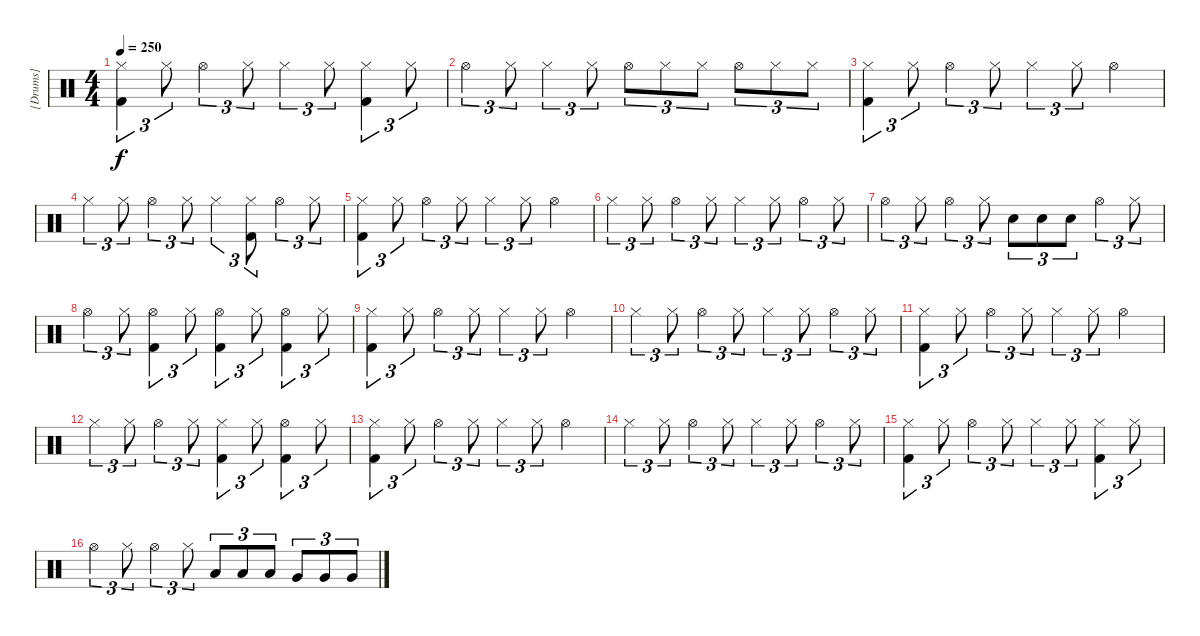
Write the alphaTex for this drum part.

\track ("[Drums]" "[Drums]") {instrument percussion}
\staff {score}
\articulation defaults
\ts (4 4)
\tempo 250
\clef neutral
\ks c
("Hi-Hat (closed)" "Kick (hit) 2").4{tu (3 2) dy f} "Hi-Hat (closed)".8{tu (3 2)} "Hi-Hat (open)".4{tu (3 2)} "Hi-Hat (closed)".8{tu (3 2)} "Hi-Hat (closed)".4{tu (3 2)} "Hi-Hat (closed)".8{tu (3 2)} ("Hi-Hat (closed)" "Kick (hit) 2").4{tu (3 2)} "Hi-Hat (closed)".8{tu (3 2)} |
"Hi-Hat (open)".4{tu (3 2)} "Hi-Hat (closed)".8{tu (3 2)} "Hi-Hat (closed)".4{tu (3 2)} "Hi-Hat (closed)".8{tu (3 2)} "Hi-Hat (open)".8{tu (3 2)} "Hi-Hat (closed)".8{tu (3 2)} "Hi-Hat (closed)".8{tu (3 2)} "Hi-Hat (open)".8{tu (3 2)} "Hi-Hat (closed)".8{tu (3 2)} "Hi-Hat (closed)".8{tu (3 2)} |
("Hi-Hat (closed)" "Kick (hit) 2").4{tu (3 2)} "Hi-Hat (closed)".8{tu (3 2)} "Hi-Hat (open)".4{tu (3 2)} "Hi-Hat (closed)".8{tu (3 2)} "Hi-Hat (closed)".4{tu (3 2)} "Hi-Hat (closed)".8{tu (3 2)} "Hi-Hat (open)".4 |
"Hi-Hat (closed)".4{tu (3 2)} "Hi-Hat (closed)".8{tu (3 2)} "Hi-Hat (open)".4{tu (3 2)} "Hi-Hat (closed)".8{tu (3 2)} "Hi-Hat (closed)".4{tu (3 2)} ("Hi-Hat (closed)" "Kick (hit) 2").8{tu (3 2)} "Hi-Hat (open)".4{tu (3 2)} "Hi-Hat (closed)".8{tu (3 2)} |
("Hi-Hat (closed)" "Kick (hit) 2").4{tu (3 2)} "Hi-Hat (closed)".8{tu (3 2)} "Hi-Hat (open)".4{tu (3 2)} "Hi-Hat (closed)".8{tu (3 2)} "Hi-Hat (closed)".4{tu (3 2)} "Hi-Hat (closed)".8{tu (3 2)} "Hi-Hat (open)".4 |
"Hi-Hat (closed)".4{tu (3 2)} "Hi-Hat (closed)".8{tu (3 2)} "Hi-Hat (open)".4{tu (3 2)} "Hi-Hat (closed)".8{tu (3 2)} "Hi-Hat (closed)".4{tu (3 2)} "Hi-Hat (closed)".8{tu (3 2)} "Hi-Hat (open)".4{tu (3 2)} "Hi-Hat (closed)".8{tu (3 2)} |
"Hi-Hat (open)".4{tu (3 2)} "Hi-Hat (closed)".8{tu (3 2)} "Hi-Hat (open)".4{tu (3 2)} "Hi-Hat (closed)".8{tu (3 2)} "Electric Snare (hit)".8{tu (3 2)} "Electric Snare (hit)".8{tu (3 2)} "Electric Snare (hit)".8{tu (3 2)} "Hi-Hat (open)".4{tu (3 2)} "Hi-Hat (closed)".8{tu (3 2)} |
"Hi-Hat (open)".4{tu (3 2)} "Hi-Hat (closed)".8{tu (3 2)} ("Hi-Hat (open)" "Kick (hit) 2").4{tu (3 2)} "Hi-Hat (closed)".8{tu (3 2)} ("Hi-Hat (open)" "Kick (hit) 2").4{tu (3 2)} "Hi-Hat (closed)".8{tu (3 2)} ("Hi-Hat (open)" "Kick (hit) 2").4{tu (3 2)} "Hi-Hat (closed)".8{tu (3 2)} |
("Hi-Hat (closed)" "Kick (hit) 2").4{tu (3 2)} "Hi-Hat (closed)".8{tu (3 2)} "Hi-Hat (open)".4{tu (3 2)} "Hi-Hat (closed)".8{tu (3 2)} "Hi-Hat (closed)".4{tu (3 2)} "Hi-Hat (closed)".8{tu (3 2)} "Hi-Hat (open)".4 |
"Hi-Hat (closed)".4{tu (3 2)} "Hi-Hat (closed)".8{tu (3 2)} "Hi-Hat (open)".4{tu (3 2)} "Hi-Hat (closed)".8{tu (3 2)} "Hi-Hat (closed)".4{tu (3 2)} "Hi-Hat (closed)".8{tu (3 2)} "Hi-Hat (open)".4{tu (3 2)} "Hi-Hat (closed)".8{tu (3 2)} |
("Hi-Hat (closed)" "Kick (hit) 2").4{tu (3 2)} "Hi-Hat (closed)".8{tu (3 2)} "Hi-Hat (open)".4{tu (3 2)} "Hi-Hat (closed)".8{tu (3 2)} "Hi-Hat (closed)".4{tu (3 2)} "Hi-Hat (closed)".8{tu (3 2)} "Hi-Hat (open)".4 |
"Hi-Hat (closed)".4{tu (3 2)} "Hi-Hat (closed)".8{tu (3 2)} "Hi-Hat (open)".4{tu (3 2)} "Hi-Hat (closed)".8{tu (3 2)} ("Hi-Hat (closed)" "Kick (hit) 2").4{tu (3 2)} "Hi-Hat (closed)".8{tu (3 2)} ("Hi-Hat (open)" "Kick (hit) 2").4{tu (3 2)} "Hi-Hat (closed)".8{tu (3 2)} |
("Hi-Hat (closed)" "Kick (hit) 2").4{tu (3 2)} "Hi-Hat (closed)".8{tu (3 2)} "Hi-Hat (open)".4{tu (3 2)} "Hi-Hat (closed)".8{tu (3 2)} "Hi-Hat (closed)".4{tu (3 2)} "Hi-Hat (closed)".8{tu (3 2)} "Hi-Hat (open)".4 |
"Hi-Hat (closed)".4{tu (3 2)} "Hi-Hat (closed)".8{tu (3 2)} "Hi-Hat (open)".4{tu (3 2)} "Hi-Hat (closed)".8{tu (3 2)} "Hi-Hat (closed)".4{tu (3 2)} "Hi-Hat (closed)".8{tu (3 2)} "Hi-Hat (open)".4{tu (3 2)} "Hi-Hat (closed)".8{tu (3 2)} |
("Hi-Hat (closed)" "Kick (hit) 2").4{tu (3 2)} "Hi-Hat (closed)".8{tu (3 2)} "Hi-Hat (open)".4{tu (3 2)} "Hi-Hat (closed)".8{tu (3 2)} "Hi-Hat (closed)".4{tu (3 2)} "Hi-Hat (closed)".8{tu (3 2)} ("Hi-Hat (closed)" "Kick (hit) 2").4{tu (3 2)} "Hi-Hat (closed)".8{tu (3 2)} |
"Hi-Hat (open)".4{tu (3 2)} "Hi-Hat (closed)".8{tu (3 2)} "Hi-Hat (open)".4{tu (3 2)} "Hi-Hat (closed)".8{tu (3 2)} "Low Tom (hit)".8{tu (3 2)} "Low Tom (hit)".8{tu (3 2)} "Low Tom (hit)".8{tu (3 2)} "Very Low Tom (hit)".8{tu (3 2)} "Very Low Tom (hit)".8{tu (3 2)} "Very Low Tom (hit)".8{tu (3 2)}
